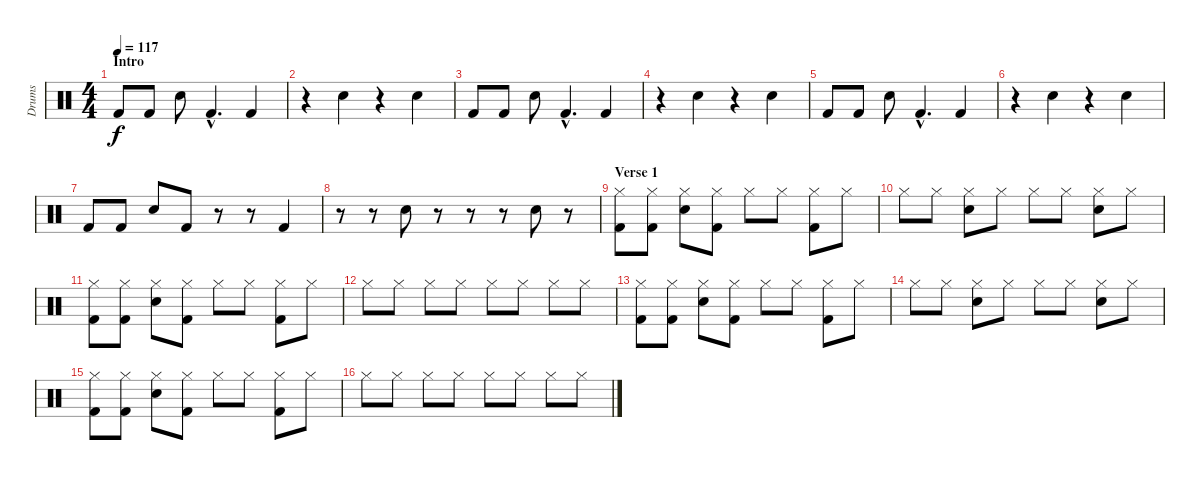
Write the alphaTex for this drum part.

\track ("Drums" "Drums") {instrument percussion}
\staff {score}
\articulation defaults
\ts (4 4)
\section ("" "Intro")
\tempo 117
\clef neutral
\ks c "Kick (hit) 2".8{dy f} "Kick (hit) 2".8 "Snare (hit) 2".8 "Kick (hit) 2"{hac}.4{d} "Kick (hit) 2".4
|
r.4 "Snare (hit) 2".4 r.4 "Snare (hit) 2".4 |
"Kick (hit) 2".8 "Kick (hit) 2".8 "Snare (hit) 2".8 "Kick (hit) 2"{hac}.4{d} "Kick (hit) 2".4 |
r.4 "Snare (hit) 2".4 r.4 "Snare (hit) 2".4 |
"Kick (hit) 2".8 "Kick (hit) 2".8 "Snare (hit) 2".8 "Kick (hit) 2"{hac}.4{d} "Kick (hit) 2".4 |
r.4 "Snare (hit) 2".4 r.4 "Snare (hit) 2".4 |
"Kick (hit) 2".8 "Kick (hit) 2".8 "Snare (hit) 2".8 "Kick (hit) 2".8 r.8 r.8 "Kick (hit) 2".4 |
r.8 r.8 "Snare (hit) 2".8 r.8 r.8 r.8 "Snare (hit) 2".8 r.8 |
\section ("" "Verse 1")
("Hi-Hat (closed)" "Kick (hit) 2").8 ("Hi-Hat (closed)" "Kick (hit) 2").8 ("Hi-Hat (closed)" "Snare (hit) 2").8 ("Hi-Hat (closed)" "Kick (hit) 2").8 "Hi-Hat (closed)".8 "Hi-Hat (closed)".8 ("Hi-Hat (closed)" "Kick (hit) 2").8 "Hi-Hat (closed)".8 |
"Hi-Hat (closed)".8 "Hi-Hat (closed)".8 ("Hi-Hat (closed)" "Snare (hit) 2").8 "Hi-Hat (closed)".8 "Hi-Hat (closed)".8 "Hi-Hat (closed)".8 ("Hi-Hat (closed)" "Snare (hit) 2").8 "Hi-Hat (closed)".8 |
("Hi-Hat (closed)" "Kick (hit) 2").8 ("Hi-Hat (closed)" "Kick (hit) 2").8 ("Hi-Hat (closed)" "Snare (hit) 2").8 ("Hi-Hat (closed)" "Kick (hit) 2").8 "Hi-Hat (closed)".8 "Hi-Hat (closed)".8 ("Hi-Hat (closed)" "Kick (hit) 2").8 "Hi-Hat (closed)".8 |
"Hi-Hat (closed)".8 "Hi-Hat (closed)".8 "Hi-Hat (closed)".8 "Hi-Hat (closed)".8 "Hi-Hat (closed)".8 "Hi-Hat (closed)".8 "Hi-Hat (closed)".8 "Hi-Hat (closed)".8 |
("Hi-Hat (closed)" "Kick (hit) 2").8 ("Hi-Hat (closed)" "Kick (hit) 2").8 ("Hi-Hat (closed)" "Snare (hit) 2").8 ("Hi-Hat (closed)" "Kick (hit) 2").8 "Hi-Hat (closed)".8 "Hi-Hat (closed)".8 ("Hi-Hat (closed)" "Kick (hit) 2").8 "Hi-Hat (closed)".8 |
"Hi-Hat (closed)".8 "Hi-Hat (closed)".8 ("Hi-Hat (closed)" "Snare (hit) 2").8 "Hi-Hat (closed)".8 "Hi-Hat (closed)".8 "Hi-Hat (closed)".8 ("Hi-Hat (closed)" "Snare (hit) 2").8 "Hi-Hat (closed)".8 |
("Hi-Hat (closed)" "Kick (hit) 2").8 ("Hi-Hat (closed)" "Kick (hit) 2").8 ("Hi-Hat (closed)" "Snare (hit) 2").8 ("Hi-Hat (closed)" "Kick (hit) 2").8 "Hi-Hat (closed)".8 "Hi-Hat (closed)".8 ("Hi-Hat (closed)" "Kick (hit) 2").8 "Hi-Hat (closed)".8 |
"Hi-Hat (closed)".8 "Hi-Hat (closed)".8 "Hi-Hat (closed)".8 "Hi-Hat (closed)".8 "Hi-Hat (closed)".8 "Hi-Hat (closed)".8 "Hi-Hat (closed)".8 "Hi-Hat (closed)".8
